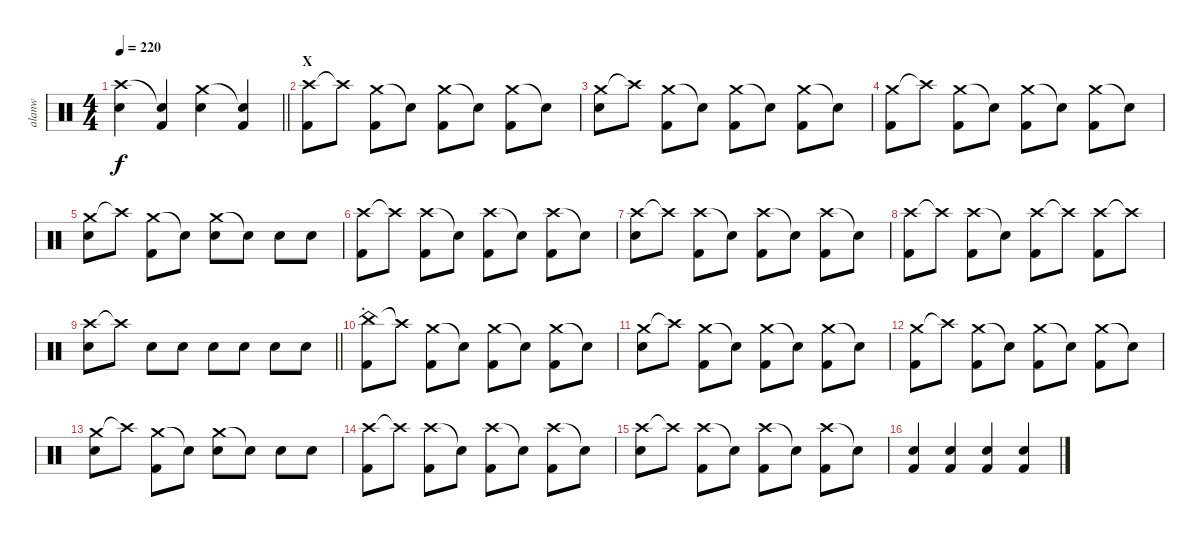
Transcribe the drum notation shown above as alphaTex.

\track ("alanw" "alanw") {instrument percussion}
\staff {score}
\articulation defaults
\ts (4 4)
\tempo 220
\clef neutral
\barLineRight lightlight
\ks c
("Crash high (hit)" "Electric Snare (hit)").4{dy f} ("Snare (hit)"{t} "Kick (hit) 2").4 ("Crash medium (hit)" "Electric Snare (hit)").4 ("Snare (hit)"{t} "Kick (hit) 2").4 |
\section ("" "X")
("Crash high (hit)" "Kick (hit) 2").8 "Crash high (hit)"{t}.8 ("Crash medium (hit)" "Kick (hit) 2").8 "Snare (hit)"{t}.8 ("Crash medium (hit)" "Kick (hit) 2").8 "Snare (hit)"{t}.8 ("Crash medium (hit)" "Kick (hit) 2").8 "Snare (hit)"{t}.8 |
("Crash medium (hit)" "Electric Snare (hit)").8 "Crash high (hit)"{t}.8 ("Crash medium (hit)" "Kick (hit) 2").8 "Snare (hit)"{t}.8 ("Crash medium (hit)" "Kick (hit) 2").8 "Snare (hit)"{t}.8 ("Crash medium (hit)" "Kick (hit) 2").8 "Snare (hit)"{t}.8 |
("Crash medium (hit)" "Kick (hit) 2").8 "Crash high (hit)"{t}.8 ("Crash medium (hit)" "Kick (hit) 2").8 "Snare (hit)"{t}.8 ("Crash medium (hit)" "Kick (hit) 2").8 "Snare (hit)"{t}.8 ("Crash medium (hit)" "Kick (hit) 2").8 "Snare (hit)"{t}.8 |
("Crash medium (hit)" "Electric Snare (hit)").8 "Crash high (hit)"{t}.8 ("Crash medium (hit)" "Kick (hit) 2").8 "Snare (hit)"{t}.8 ("Crash medium (hit)" "Electric Snare (hit)").8 "Snare (hit)"{t}.8 "Electric Snare (hit)".8 "Electric Snare (hit)".8 |
("Crash high (hit)" "Kick (hit) 2").8 "Crash high (hit)"{t}.8 ("Crash high (hit)" "Kick (hit) 2").8 "Snare (hit)"{t}.8 ("Crash high (hit)" "Kick (hit) 2").8 "Snare (hit)"{t}.8 ("Crash high (hit)" "Kick (hit) 2").8 "Snare (hit)"{t}.8 |
("Crash high (hit)" "Electric Snare (hit)").8 "Crash high (hit)"{t}.8 ("Crash high (hit)" "Kick (hit) 2").8 "Snare (hit)"{t}.8 ("Crash high (hit)" "Kick (hit) 2").8 "Snare (hit)"{t}.8 ("Crash high (hit)" "Kick (hit) 2").8 "Snare (hit)"{t}.8 |
("Crash high (hit)" "Kick (hit) 2").8 "Crash high (hit)"{t}.8 ("Crash high (hit)" "Kick (hit) 2").8 "Snare (hit)"{t}.8 ("Crash high (hit)" "Kick (hit) 2").8 "Crash high (hit)"{t}.8 ("Crash high (hit)" "Kick (hit) 2").8 "Crash high (hit)"{t}.8 |
\barLineRight lightlight
("Crash high (hit)" "Electric Snare (hit)").8 "Crash high (hit)"{t}.8 "Electric Snare (hit)".8 "Electric Snare (hit)".8 "Electric Snare (hit)".8 "Electric Snare (hit)".8 "Electric Snare (hit)".8 "Electric Snare (hit)".8 |
\section ("" ".")
("China (hit)" "Kick (hit) 2").8 "Crash high (hit)"{t}.8 ("Crash medium (hit)" "Kick (hit) 2").8 "Snare (hit)"{t}.8 ("Crash medium (hit)" "Kick (hit) 2").8 "Snare (hit)"{t}.8 ("Crash medium (hit)" "Kick (hit) 2").8 "Snare (hit)"{t}.8 |
("Crash medium (hit)" "Electric Snare (hit)").8 "Crash high (hit)"{t}.8 ("Crash medium (hit)" "Kick (hit) 2").8 "Snare (hit)"{t}.8 ("Crash medium (hit)" "Kick (hit) 2").8 "Snare (hit)"{t}.8 ("Crash medium (hit)" "Kick (hit) 2").8 "Snare (hit)"{t}.8 |
("Crash medium (hit)" "Kick (hit) 2").8 "Crash high (hit)"{t}.8 ("Crash medium (hit)" "Kick (hit) 2").8 "Snare (hit)"{t}.8 ("Crash medium (hit)" "Kick (hit) 2").8 "Snare (hit)"{t}.8 ("Crash medium (hit)" "Kick (hit) 2").8 "Snare (hit)"{t}.8 |
("Crash medium (hit)" "Electric Snare (hit)").8 "Crash high (hit)"{t}.8 ("Crash medium (hit)" "Kick (hit) 2").8 "Snare (hit)"{t}.8 ("Crash medium (hit)" "Electric Snare (hit)").8 "Snare (hit)"{t}.8 "Electric Snare (hit)".8 "Electric Snare (hit)".8 |
("Crash high (hit)" "Kick (hit) 2").8 "Crash high (hit)"{t}.8 ("Crash high (hit)" "Kick (hit) 2").8 "Snare (hit)"{t}.8 ("Crash high (hit)" "Kick (hit) 2").8 "Snare (hit)"{t}.8 ("Crash high (hit)" "Kick (hit) 2").8 "Snare (hit)"{t}.8 |
("Crash high (hit)" "Electric Snare (hit)").8 "Crash high (hit)"{t}.8 ("Crash high (hit)" "Kick (hit) 2").8 "Snare (hit)"{t}.8 ("Crash high (hit)" "Kick (hit) 2").8 "Snare (hit)"{t}.8 ("Crash high (hit)" "Kick (hit) 2").8 "Snare (hit)"{t}.8 |
("Electric Snare (hit)" "Kick (hit) 2").4 ("Electric Snare (hit)" "Kick (hit) 2").4 ("Electric Snare (hit)" "Kick (hit) 2").4 ("Electric Snare (hit)" "Kick (hit) 2").4
